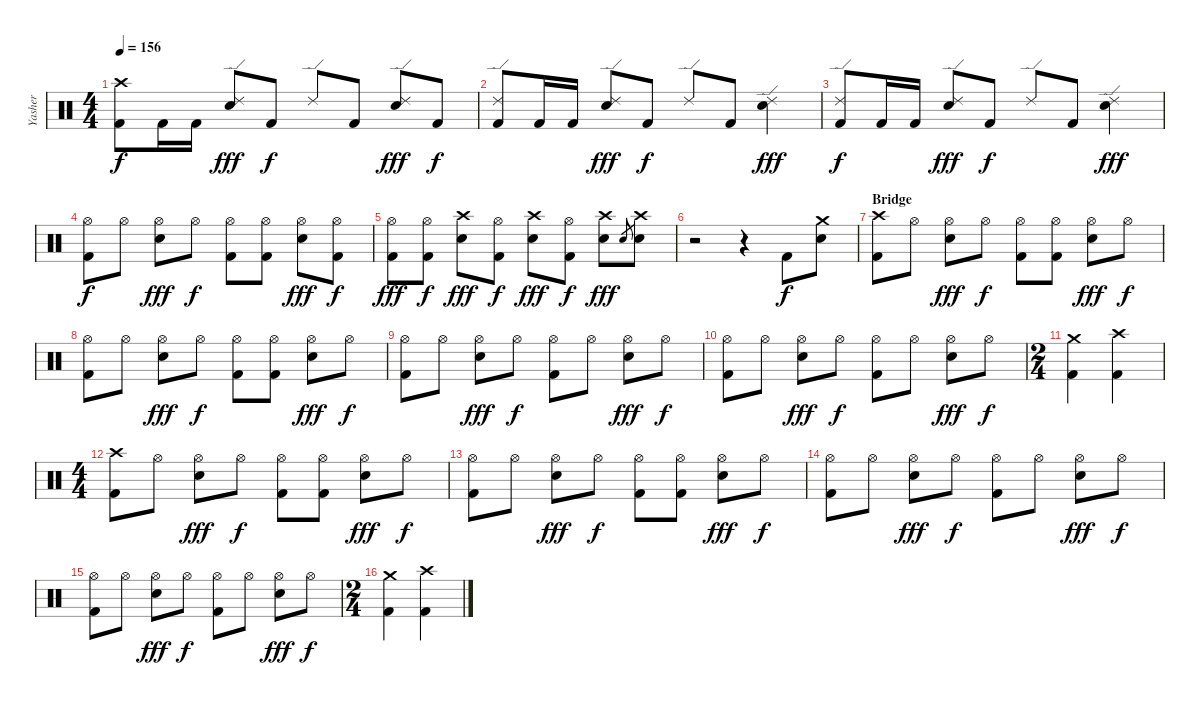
\track ("Yasher" "Yasher") {instrument percussion}
\staff {score}
\articulation defaults
\ts (4 4)
\tempo 156
\clef neutral
\ks c
("Crash high (hit)" "Kick (hit) 2").8{dy f} "Kick (hit) 2".16 "Kick (hit) 2".16 ("Ride (edge) 2" "Electric Snare (hit)").8{dy fff} "Kick (hit) 2".8{dy f} "Ride (edge) 2".8 "Kick (hit) 2".8 ("Ride (edge) 2" "Electric Snare (hit)").8{dy fff} "Kick (hit) 2".8{dy f} |
("Ride (edge) 2" "Kick (hit) 2").8 "Kick (hit) 2".16 "Kick (hit) 2".16 ("Ride (edge) 2" "Electric Snare (hit)").8{dy fff} "Kick (hit) 2".8{dy f} "Ride (edge) 2".8 "Kick (hit) 2".8 ("Ride (edge) 2" "Electric Snare (hit)").4{dy fff} |
("Ride (edge) 2" "Kick (hit) 2").8{dy f} "Kick (hit) 2".16 "Kick (hit) 2".16 ("Ride (edge) 2" "Electric Snare (hit)").8{dy fff} "Kick (hit) 2".8{dy f} "Ride (edge) 2".8 "Kick (hit) 2".8 ("Ride (edge) 2" "Electric Snare (hit)").4{dy fff} |
("Hi-Hat (open)" "Kick (hit) 2").8{dy f} "Hi-Hat (open)".8 ("Hi-Hat (open)" "Electric Snare (hit)").8{dy fff} "Hi-Hat (open)".8{dy f} ("Hi-Hat (open)" "Kick (hit) 2").8 ("Hi-Hat (open)" "Kick (hit) 2").8 ("Hi-Hat (open)" "Electric Snare (hit)").8{dy fff} ("Hi-Hat (open)" "Kick (hit) 2").8{dy f} |
("Hi-Hat (open)" "Kick (hit) 2").8{dy fff} ("Hi-Hat (open)" "Kick (hit) 2").8{dy f} ("Crash high (hit)" "Electric Snare (hit)").8{dy fff} ("Hi-Hat (open)" "Kick (hit) 2").8{dy f} ("Crash high (hit)" "Electric Snare (hit)").8{dy fff} ("Hi-Hat (open)" "Kick (hit) 2").8{dy f} ("Crash high (hit)" "Electric Snare (hit)").8{dy fff} "Electric Snare (hit)".8{gr} ("Crash high (hit)" "Electric Snare (hit)").8 |
r.2 r.4 "Kick (hit) 2".8{dy f} ("Crash medium (hit)" "Electric Snare (hit)").8 |
\section ("" "Bridge")
("Crash high (hit)" "Kick (hit) 2").8 "Hi-Hat (open)".8 ("Hi-Hat (open)" "Electric Snare (hit)").8{dy fff} "Hi-Hat (open)".8{dy f} ("Hi-Hat (open)" "Kick (hit) 2").8 ("Hi-Hat (open)" "Kick (hit) 2").8 ("Hi-Hat (open)" "Electric Snare (hit)").8{dy fff} "Hi-Hat (open)".8{dy f} |
("Hi-Hat (open)" "Kick (hit) 2").8 "Hi-Hat (open)".8 ("Hi-Hat (open)" "Electric Snare (hit)").8{dy fff} "Hi-Hat (open)".8{dy f} ("Hi-Hat (open)" "Kick (hit) 2").8 ("Hi-Hat (open)" "Kick (hit) 2").8 ("Hi-Hat (open)" "Electric Snare (hit)").8{dy fff} "Hi-Hat (open)".8{dy f} |
("Hi-Hat (open)" "Kick (hit) 2").8 "Hi-Hat (open)".8 ("Hi-Hat (open)" "Electric Snare (hit)").8{dy fff} "Hi-Hat (open)".8{dy f} ("Hi-Hat (open)" "Kick (hit) 2").8 "Hi-Hat (open)".8 ("Hi-Hat (open)" "Electric Snare (hit)").8{dy fff} "Hi-Hat (open)".8{dy f} |
("Hi-Hat (open)" "Kick (hit) 2").8 "Hi-Hat (open)".8 ("Hi-Hat (open)" "Electric Snare (hit)").8{dy fff} "Hi-Hat (open)".8{dy f} ("Hi-Hat (open)" "Kick (hit) 2").8 "Hi-Hat (open)".8 ("Hi-Hat (open)" "Electric Snare (hit)").8{dy fff} "Hi-Hat (open)".8{dy f} |
\ts (2 4)
("Crash medium (hit)" "Kick (hit) 2").4 ("Crash high (hit)" "Kick (hit) 2").4 |
\ts (4 4)
("Crash high (hit)" "Kick (hit) 2").8 "Hi-Hat (open)".8 ("Hi-Hat (open)" "Electric Snare (hit)").8{dy fff} "Hi-Hat (open)".8{dy f} ("Hi-Hat (open)" "Kick (hit) 2").8 ("Hi-Hat (open)" "Kick (hit) 2").8 ("Hi-Hat (open)" "Electric Snare (hit)").8{dy fff} "Hi-Hat (open)".8{dy f} |
("Hi-Hat (open)" "Kick (hit) 2").8 "Hi-Hat (open)".8 ("Hi-Hat (open)" "Electric Snare (hit)").8{dy fff} "Hi-Hat (open)".8{dy f} ("Hi-Hat (open)" "Kick (hit) 2").8 ("Hi-Hat (open)" "Kick (hit) 2").8 ("Hi-Hat (open)" "Electric Snare (hit)").8{dy fff} "Hi-Hat (open)".8{dy f} |
("Hi-Hat (open)" "Kick (hit) 2").8 "Hi-Hat (open)".8 ("Hi-Hat (open)" "Electric Snare (hit)").8{dy fff} "Hi-Hat (open)".8{dy f} ("Hi-Hat (open)" "Kick (hit) 2").8 "Hi-Hat (open)".8 ("Hi-Hat (open)" "Electric Snare (hit)").8{dy fff} "Hi-Hat (open)".8{dy f} |
("Hi-Hat (open)" "Kick (hit) 2").8 "Hi-Hat (open)".8 ("Hi-Hat (open)" "Electric Snare (hit)").8{dy fff} "Hi-Hat (open)".8{dy f} ("Hi-Hat (open)" "Kick (hit) 2").8 "Hi-Hat (open)".8 ("Hi-Hat (open)" "Electric Snare (hit)").8{dy fff} "Hi-Hat (open)".8{dy f} |
\ts (2 4)
("Crash medium (hit)" "Kick (hit) 2").4 ("Crash high (hit)" "Kick (hit) 2").4
